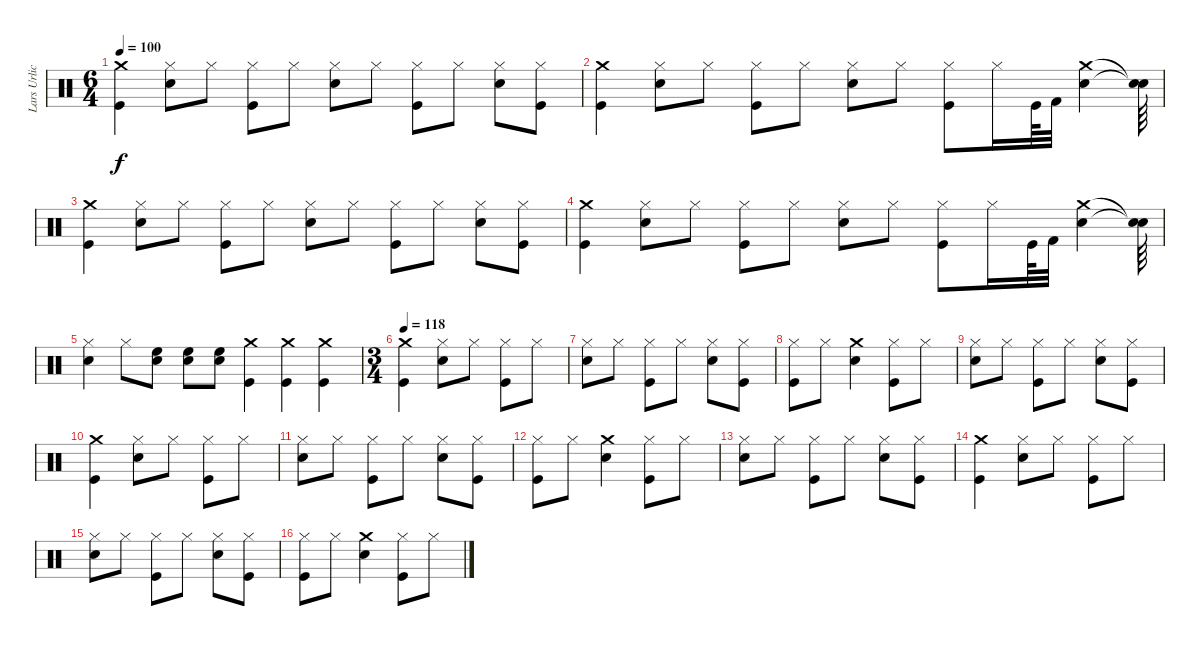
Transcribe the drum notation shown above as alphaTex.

\track ("Lars Urlich" "Lars Urlic") {instrument percussion}
\staff {score}
\articulation defaults
\ts (6 4)
\tempo 100
\clef neutral
\ks c
("Kick (hit)" "Crash medium (hit)").4{dy f} ("Hi-Hat (closed)" "Snare (hit) 2").8 "Hi-Hat (closed)".8 ("Hi-Hat (closed)" "Kick (hit)").8 "Hi-Hat (closed)".8 ("Snare (hit) 2" "Hi-Hat (closed)").8 "Hi-Hat (closed)".8 ("Hi-Hat (closed)" "Kick (hit)").8 "Hi-Hat (closed)".8 ("Snare (hit) 2" "Hi-Hat (closed)").8 ("Kick (hit)" "Hi-Hat (closed)").8 |
("Crash medium (hit)" "Kick (hit)").4 ("Hi-Hat (closed)" "Snare (hit) 2").8 "Hi-Hat (closed)".8 ("Hi-Hat (closed)" "Kick (hit)").8 "Hi-Hat (closed)".8 ("Snare (hit) 2" "Hi-Hat (closed)").8 "Hi-Hat (closed)".8 ("Hi-Hat (closed)" "Kick (hit)").8 "Hi-Hat (closed)".16 "Kick (hit)".64 "Kick (hit) 2".32 ("Crash medium (hit)" "Snare (hit) 2").4 ("Snare (hit)"{t} "Snare (hit)"{t}).64 |
("Kick (hit)" "Crash medium (hit)").4 ("Snare (hit) 2" "Hi-Hat (closed)").8 "Hi-Hat (closed)".8 ("Hi-Hat (closed)" "Kick (hit)").8 "Hi-Hat (closed)".8 ("Snare (hit) 2" "Hi-Hat (closed)").8 "Hi-Hat (closed)".8 ("Hi-Hat (closed)" "Kick (hit)").8 "Hi-Hat (closed)".8 ("Snare (hit) 2" "Hi-Hat (closed)").8 ("Kick (hit)" "Hi-Hat (closed)").8 |
("Crash medium (hit)" "Kick (hit)").4 ("Hi-Hat (closed)" "Snare (hit) 2").8 "Hi-Hat (closed)".8 ("Hi-Hat (closed)" "Kick (hit)").8 "Hi-Hat (closed)".8 ("Snare (hit) 2" "Hi-Hat (closed)").8 "Hi-Hat (closed)".8 ("Hi-Hat (closed)" "Kick (hit)").8 "Hi-Hat (closed)".16 "Kick (hit)".64 "Kick (hit) 2".32 ("Crash medium (hit)" "Snare (hit) 2").4 ("Snare (hit)"{t} "Snare (hit)"{t}).64 |
("Hi-Hat (closed)" "Snare (hit) 2").4 "Hi-Hat (closed)".8 ("High Floor Tom (hit)" "Snare (hit) 2").8 ("High Floor Tom (hit)" "Snare (hit) 2").8 ("High Floor Tom (hit)" "Snare (hit) 2").8 ("Kick (hit)" "Crash medium (hit)").4 ("Kick (hit)" "Crash medium (hit)").4 ("Kick (hit)" "Crash medium (hit)").4 |
\ts (3 4)
\tempo 118
("Kick (hit)" "Crash medium (hit)").4 ("Snare (hit) 2" "Hi-Hat (closed)").8 "Hi-Hat (closed)".8 ("Hi-Hat (closed)" "Kick (hit)").8 "Hi-Hat (closed)".8 |
("Snare (hit) 2" "Hi-Hat (closed)").8 "Hi-Hat (closed)".8 ("Hi-Hat (closed)" "Kick (hit)").8 "Hi-Hat (closed)".8 ("Snare (hit) 2" "Hi-Hat (closed)").8 ("Kick (hit)" "Hi-Hat (closed)").8 |
("Hi-Hat (closed)" "Kick (hit)").8 "Hi-Hat (closed)".8 ("Crash medium (hit)" "Snare (hit) 2").4 ("Hi-Hat (closed)" "Kick (hit)").8 "Hi-Hat (closed)".8 |
("Hi-Hat (closed)" "Snare (hit) 2").8 "Hi-Hat (closed)".8 ("Hi-Hat (closed)" "Kick (hit)").8 "Hi-Hat (closed)".8 ("Hi-Hat (closed)" "Snare (hit) 2").8 ("Kick (hit)" "Hi-Hat (closed)").8 |
("Kick (hit)" "Crash medium (hit)").4 ("Snare (hit) 2" "Hi-Hat (closed)").8 "Hi-Hat (closed)".8 ("Hi-Hat (closed)" "Kick (hit)").8 "Hi-Hat (closed)".8 |
("Snare (hit) 2" "Hi-Hat (closed)").8 "Hi-Hat (closed)".8 ("Hi-Hat (closed)" "Kick (hit)").8 "Hi-Hat (closed)".8 ("Snare (hit) 2" "Hi-Hat (closed)").8 ("Kick (hit)" "Hi-Hat (closed)").8 |
("Hi-Hat (closed)" "Kick (hit)").8 "Hi-Hat (closed)".8 ("Crash medium (hit)" "Snare (hit) 2").4 ("Hi-Hat (closed)" "Kick (hit)").8 "Hi-Hat (closed)".8 |
("Hi-Hat (closed)" "Snare (hit) 2").8 "Hi-Hat (closed)".8 ("Hi-Hat (closed)" "Kick (hit)").8 "Hi-Hat (closed)".8 ("Hi-Hat (closed)" "Snare (hit) 2").8 ("Kick (hit)" "Hi-Hat (closed)").8 |
("Kick (hit)" "Crash medium (hit)").4 ("Snare (hit) 2" "Hi-Hat (closed)").8 "Hi-Hat (closed)".8 ("Hi-Hat (closed)" "Kick (hit)").8 "Hi-Hat (closed)".8 |
("Snare (hit) 2" "Hi-Hat (closed)").8 "Hi-Hat (closed)".8 ("Hi-Hat (closed)" "Kick (hit)").8 "Hi-Hat (closed)".8 ("Snare (hit) 2" "Hi-Hat (closed)").8 ("Kick (hit)" "Hi-Hat (closed)").8 |
("Hi-Hat (closed)" "Kick (hit)").8 "Hi-Hat (closed)".8 ("Crash medium (hit)" "Snare (hit) 2").4 ("Hi-Hat (closed)" "Kick (hit)").8 "Hi-Hat (closed)".8
